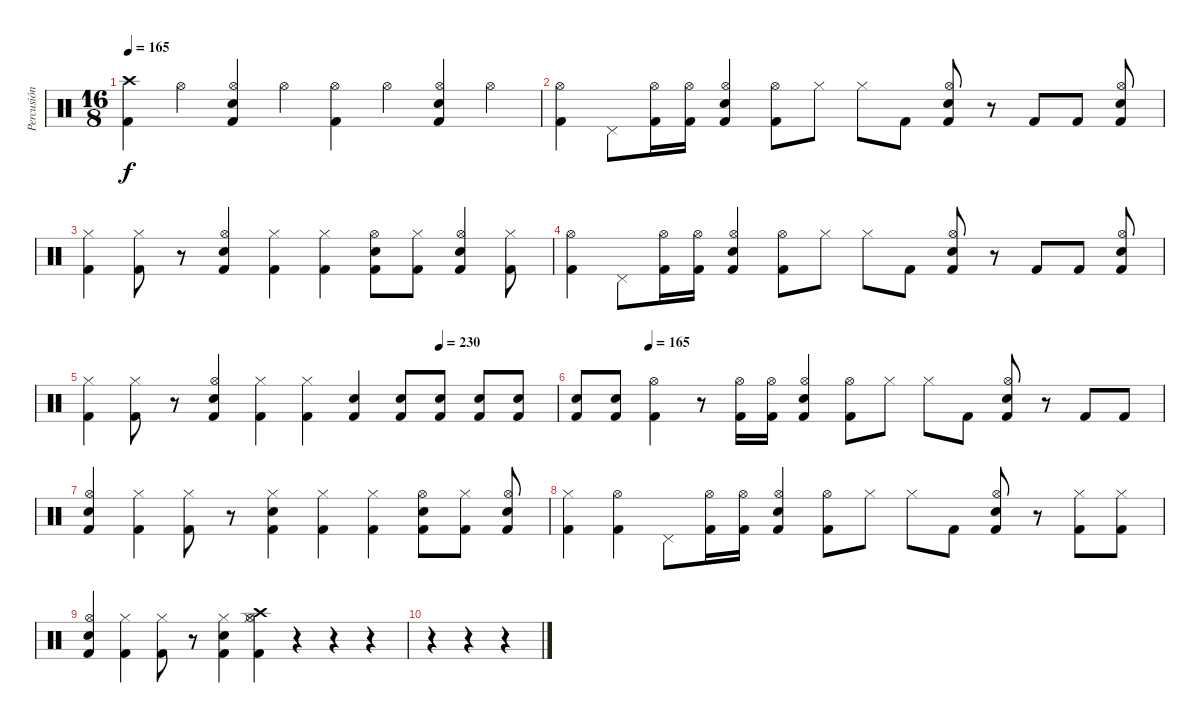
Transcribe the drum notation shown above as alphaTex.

\track ("Percusión" "Percusión") {instrument percussion}
\staff {score}
\articulation defaults
\ts (16 8)
\tempo 165
\clef neutral
\ks c
("Crash high (hit)" "Kick (hit) 2").4{dy f} "Hi-Hat (open)".4 ("Hi-Hat (open)" "Electric Snare (hit)" "Kick (hit) 2").4 "Hi-Hat (open)".4 ("Hi-Hat (open)" "Kick (hit) 2").4 "Hi-Hat (open)".4 ("Hi-Hat (open)" "Electric Snare (hit)" "Kick (hit) 2").4 "Hi-Hat (open)".4 |
("Hi-Hat (open)" "Kick (hit) 2").4 "Pedal Hi-Hat (hit)".8 ("Hi-Hat (open)" "Kick (hit) 2").16 ("Hi-Hat (open)" "Kick (hit) 2").16 ("Electric Snare (hit)" "Hi-Hat (open)" "Kick (hit) 2").4 ("Hi-Hat (open)" "Kick (hit) 2").8 "Hi-Hat (closed)".8 "Hi-Hat (closed)".8 "Kick (hit) 2".8 ("Electric Snare (hit)" "Hi-Hat (open)" "Kick (hit) 2").8 r.8 "Kick (hit) 2".8 "Kick (hit) 2".8 ("Electric Snare (hit)" "Hi-Hat (open)" "Kick (hit) 2").8 |
("Hi-Hat (closed)" "Kick (hit) 2").4 ("Hi-Hat (closed)" "Kick (hit) 2").8 r.8 ("Hi-Hat (open)" "Electric Snare (hit)" "Kick (hit) 2").4 ("Hi-Hat (closed)" "Kick (hit) 2").4 ("Hi-Hat (closed)" "Kick (hit) 2").4 ("Hi-Hat (open)" "Electric Snare (hit)" "Kick (hit) 2").8 ("Hi-Hat (closed)" "Kick (hit) 2").8 ("Hi-Hat (open)" "Electric Snare (hit)" "Kick (hit) 2").4 ("Hi-Hat (closed)" "Kick (hit) 2").8 |
("Hi-Hat (open)" "Kick (hit) 2").4 "Pedal Hi-Hat (hit)".8 ("Hi-Hat (open)" "Kick (hit) 2").16 ("Hi-Hat (open)" "Kick (hit) 2").16 ("Electric Snare (hit)" "Hi-Hat (open)" "Kick (hit) 2").4 ("Hi-Hat (open)" "Kick (hit) 2").8 "Hi-Hat (closed)".8 "Hi-Hat (closed)".8 "Kick (hit) 2".8 ("Electric Snare (hit)" "Hi-Hat (open)" "Kick (hit) 2").8 r.8 "Kick (hit) 2".8 "Kick (hit) 2".8 ("Electric Snare (hit)" "Hi-Hat (open)" "Kick (hit) 2").8 |
\tempo (230 0.75)
("Hi-Hat (closed)" "Kick (hit) 2").4 ("Hi-Hat (closed)" "Kick (hit) 2").8 r.8 ("Hi-Hat (open)" "Electric Snare (hit)" "Kick (hit) 2").4 ("Hi-Hat (closed)" "Kick (hit) 2").4 ("Hi-Hat (closed)" "Kick (hit) 2").4 ("Electric Snare (hit)" "Kick (hit) 2").4 ("Electric Snare (hit)" "Kick (hit) 2").8 ("Electric Snare (hit)" "Kick (hit) 2").8 ("Electric Snare (hit)" "Kick (hit) 2").8 ("Electric Snare (hit)" "Kick (hit) 2").8 |
\tempo (165 0.125)
("Electric Snare (hit)" "Kick (hit) 2").8 ("Electric Snare (hit)" "Kick (hit) 2").8 ("Kick (hit) 2" "Hi-Hat (open)").4 r.8 ("Hi-Hat (open)" "Kick (hit) 2").16 ("Hi-Hat (open)" "Kick (hit) 2").16 ("Electric Snare (hit)" "Hi-Hat (open)" "Kick (hit) 2").4 ("Hi-Hat (open)" "Kick (hit) 2").8 "Hi-Hat (closed)".8 "Hi-Hat (closed)".8 "Kick (hit) 2".8 ("Electric Snare (hit)" "Hi-Hat (open)" "Kick (hit) 2").8 r.8 "Kick (hit) 2".8 "Kick (hit) 2".8 |
("Electric Snare (hit)" "Hi-Hat (open)" "Kick (hit) 2").4 ("Hi-Hat (closed)" "Kick (hit) 2").4 ("Hi-Hat (closed)" "Kick (hit) 2").8 r.8 ("Hi-Hat (closed)" "Electric Snare (hit)" "Kick (hit) 2").4 ("Hi-Hat (closed)" "Kick (hit) 2").4 ("Hi-Hat (closed)" "Kick (hit) 2").4 ("Hi-Hat (open)" "Electric Snare (hit)" "Kick (hit) 2").8 ("Hi-Hat (closed)" "Kick (hit) 2").8 ("Hi-Hat (open)" "Electric Snare (hit)" "Kick (hit) 2").8 |
("Hi-Hat (closed)" "Kick (hit) 2").4 ("Kick (hit) 2" "Hi-Hat (open)").4 "Pedal Hi-Hat (hit)".8 ("Hi-Hat (open)" "Kick (hit) 2").16 ("Hi-Hat (open)" "Kick (hit) 2").16 ("Electric Snare (hit)" "Hi-Hat (open)" "Kick (hit) 2").4 ("Hi-Hat (open)" "Kick (hit) 2").8 "Hi-Hat (closed)".8 "Hi-Hat (closed)".8 "Kick (hit) 2".8 ("Electric Snare (hit)" "Hi-Hat (open)" "Kick (hit) 2").8 r.8 ("Hi-Hat (closed)" "Kick (hit) 2").8 ("Hi-Hat (closed)" "Kick (hit) 2").8 |
("Electric Snare (hit)" "Hi-Hat (open)" "Kick (hit) 2").4 ("Hi-Hat (closed)" "Kick (hit) 2").4 ("Hi-Hat (closed)" "Kick (hit) 2").8 r.8 ("Hi-Hat (closed)" "Electric Snare (hit)" "Kick (hit) 2").4 ("Crash high (hit)" "Hi-Hat (open)" "Hi-Hat (closed)" "Kick (hit) 2").4 r.4 r.4 r.4 |
r.4 r.4 r.4
